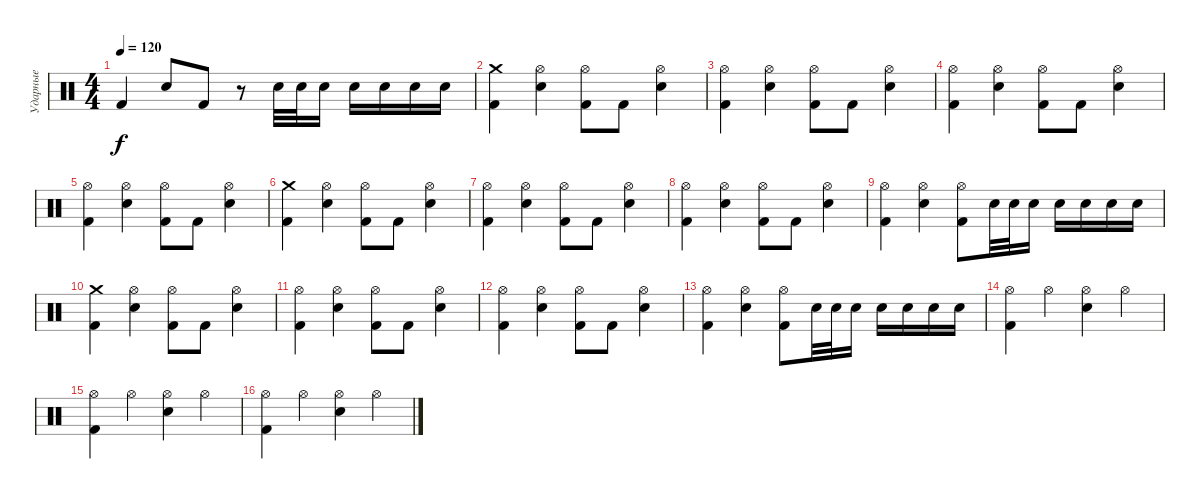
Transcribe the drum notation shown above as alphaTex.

\track ("Ударные" "Ударные") {instrument percussion}
\staff {score}
\articulation defaults
\ts (4 4)
\tempo 120
\clef neutral
\ks c "Kick (hit) 2".4{dy f} "Electric Snare (hit)".8 "Kick (hit) 2".8
r.8 "Electric Snare (hit)".32 "Electric Snare (hit)".32 "Electric Snare (hit)".16 "Electric Snare (hit)".16 "Electric Snare (hit)".16 "Electric Snare (hit)".16 "Electric Snare (hit)".16 |
("Kick (hit) 2" "Crash medium (hit)").4 ("Electric Snare (hit)" "Hi-Hat (open)").4 ("Kick (hit) 2" "Hi-Hat (open)").8 "Kick (hit) 2".8 ("Electric Snare (hit)" "Hi-Hat (open)").4 |
("Kick (hit) 2" "Hi-Hat (open)").4 ("Electric Snare (hit)" "Hi-Hat (open)").4 ("Kick (hit) 2" "Hi-Hat (open)").8 "Kick (hit) 2".8 ("Electric Snare (hit)" "Hi-Hat (open)").4 |
("Kick (hit) 2" "Hi-Hat (open)").4 ("Electric Snare (hit)" "Hi-Hat (open)").4 ("Kick (hit) 2" "Hi-Hat (open)").8 "Kick (hit) 2".8 ("Electric Snare (hit)" "Hi-Hat (open)").4 |
("Kick (hit) 2" "Hi-Hat (open)").4 ("Electric Snare (hit)" "Hi-Hat (open)").4 ("Kick (hit) 2" "Hi-Hat (open)").8 "Kick (hit) 2".8 ("Electric Snare (hit)" "Hi-Hat (open)").4 |
("Kick (hit) 2" "Crash medium (hit)").4 ("Electric Snare (hit)" "Hi-Hat (open)").4 ("Kick (hit) 2" "Hi-Hat (open)").8 "Kick (hit) 2".8 ("Electric Snare (hit)" "Hi-Hat (open)").4 |
("Kick (hit) 2" "Hi-Hat (open)").4 ("Electric Snare (hit)" "Hi-Hat (open)").4 ("Kick (hit) 2" "Hi-Hat (open)").8 "Kick (hit) 2".8 ("Electric Snare (hit)" "Hi-Hat (open)").4 |
("Kick (hit) 2" "Hi-Hat (open)").4 ("Electric Snare (hit)" "Hi-Hat (open)").4 ("Kick (hit) 2" "Hi-Hat (open)").8 "Kick (hit) 2".8 ("Electric Snare (hit)" "Hi-Hat (open)").4 |
("Kick (hit) 2" "Hi-Hat (open)").4 ("Electric Snare (hit)" "Hi-Hat (open)").4 ("Kick (hit) 2" "Hi-Hat (open)").8 "Electric Snare (hit)".32 "Electric Snare (hit)".32 "Electric Snare (hit)".16 "Electric Snare (hit)".16 "Electric Snare (hit)".16 "Electric Snare (hit)".16 "Electric Snare (hit)".16 |
("Kick (hit) 2" "Crash medium (hit)").4 ("Electric Snare (hit)" "Hi-Hat (open)").4 ("Kick (hit) 2" "Hi-Hat (open)").8 "Kick (hit) 2".8 ("Electric Snare (hit)" "Hi-Hat (open)").4 |
("Kick (hit) 2" "Hi-Hat (open)").4 ("Electric Snare (hit)" "Hi-Hat (open)").4 ("Kick (hit) 2" "Hi-Hat (open)").8 "Kick (hit) 2".8 ("Electric Snare (hit)" "Hi-Hat (open)").4 |
("Kick (hit) 2" "Hi-Hat (open)").4 ("Electric Snare (hit)" "Hi-Hat (open)").4 ("Kick (hit) 2" "Hi-Hat (open)").8 "Kick (hit) 2".8 ("Electric Snare (hit)" "Hi-Hat (open)").4 |
("Kick (hit) 2" "Hi-Hat (open)").4 ("Electric Snare (hit)" "Hi-Hat (open)").4 ("Kick (hit) 2" "Hi-Hat (open)").8 "Electric Snare (hit)".32 "Electric Snare (hit)".32 "Electric Snare (hit)".16 "Electric Snare (hit)".16 "Electric Snare (hit)".16 "Electric Snare (hit)".16 "Electric Snare (hit)".16 |
("Kick (hit) 2" "Hi-Hat (open)").4 "Hi-Hat (open)".4 ("Electric Snare (hit)" "Hi-Hat (open)").4 "Hi-Hat (open)".4 |
("Kick (hit) 2" "Hi-Hat (open)").4 "Hi-Hat (open)".4 ("Electric Snare (hit)" "Hi-Hat (open)").4 "Hi-Hat (open)".4 |
("Kick (hit) 2" "Hi-Hat (open)").4 "Hi-Hat (open)".4 ("Electric Snare (hit)" "Hi-Hat (open)").4 "Hi-Hat (open)".4
